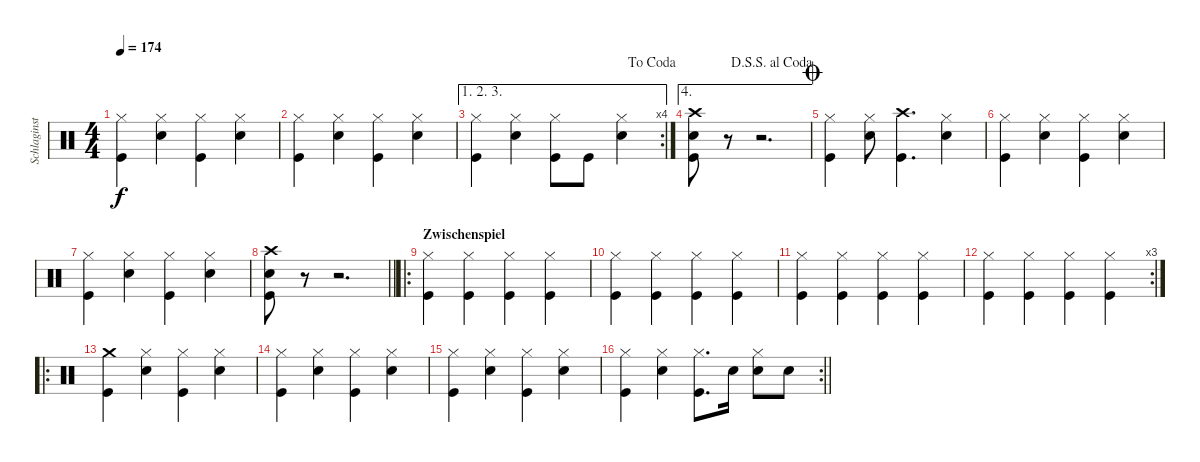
\track ("Schlaginstrumente - Auswahl" "Schlaginst") {instrument percussion}
\staff {score}
\articulation defaults
\ts (4 4)
\tempo 174
\clef neutral
\ks c
("Kick (hit)" "Hi-Hat (closed)").4{dy f} ("Snare (hit) 2" "Hi-Hat (closed)").4 ("Kick (hit)" "Hi-Hat (closed)").4 ("Snare (hit) 2" "Hi-Hat (closed)").4 |
("Kick (hit)" "Hi-Hat (closed)").4 ("Snare (hit) 2" "Hi-Hat (closed)").4 ("Kick (hit)" "Hi-Hat (closed)").4 ("Snare (hit) 2" "Hi-Hat (closed)").4 |
\ae (1 2 3)
\rc 4
\jump dacoda
("Kick (hit)" "Hi-Hat (closed)").4 ("Snare (hit) 2" "Hi-Hat (closed)").4 ("Kick (hit)" "Hi-Hat (closed)").8 "Kick (hit)".8 ("Snare (hit) 2" "Hi-Hat (closed)").4 |
\ae 4
\jump dalsegnosegnoalcoda
("Snare (hit) 2" "Kick (hit)" "Crash high (hit)").8 r.8 r.2{d} |
\jump coda
("Kick (hit)" "Hi-Hat (closed)").4 ("Snare (hit) 2" "Hi-Hat (closed)").8 ("Kick (hit)" "Crash high (hit)").4{d} ("Snare (hit) 2" "Hi-Hat (closed)").4 |
("Kick (hit)" "Hi-Hat (closed)").4 ("Snare (hit) 2" "Hi-Hat (closed)").4 ("Kick (hit)" "Hi-Hat (closed)").4 ("Snare (hit) 2" "Hi-Hat (closed)").4 |
("Kick (hit)" "Hi-Hat (closed)").4 ("Snare (hit) 2" "Hi-Hat (closed)").4 ("Kick (hit)" "Hi-Hat (closed)").4 ("Snare (hit) 2" "Hi-Hat (closed)").4 |
\barLineRight lightlight
("Snare (hit) 2" "Kick (hit)" "Crash high (hit)").8 r.8 r.2{d} |
\ro
\section ("" "Zwischenspiel")
("Kick (hit)" "Hi-Hat (closed)").4 ("Kick (hit)" "Hi-Hat (closed)").4 ("Kick (hit)" "Hi-Hat (closed)").4 ("Kick (hit)" "Hi-Hat (closed)").4 |
("Kick (hit)" "Hi-Hat (closed)").4 ("Kick (hit)" "Hi-Hat (closed)").4 ("Kick (hit)" "Hi-Hat (closed)").4 ("Kick (hit)" "Hi-Hat (closed)").4 |
("Kick (hit)" "Hi-Hat (closed)").4 ("Kick (hit)" "Hi-Hat (closed)").4 ("Kick (hit)" "Hi-Hat (closed)").4 ("Kick (hit)" "Hi-Hat (closed)").4 |
\rc 3
("Kick (hit)" "Hi-Hat (closed)").4 ("Kick (hit)" "Hi-Hat (closed)").4 ("Kick (hit)" "Hi-Hat (closed)").4 ("Kick (hit)" "Hi-Hat (closed)").4 |
\ro
("Kick (hit)" "Crash medium (hit)").4 ("Snare (hit) 2" "Hi-Hat (closed)").4 ("Kick (hit)" "Hi-Hat (closed)").4 ("Snare (hit) 2" "Hi-Hat (closed)").4 |
("Kick (hit)" "Hi-Hat (closed)").4 ("Snare (hit) 2" "Hi-Hat (closed)").4 ("Kick (hit)" "Hi-Hat (closed)").4 ("Snare (hit) 2" "Hi-Hat (closed)").4 |
("Kick (hit)" "Hi-Hat (closed)").4 ("Snare (hit) 2" "Hi-Hat (closed)").4 ("Kick (hit)" "Hi-Hat (closed)").4 ("Snare (hit) 2" "Hi-Hat (closed)").4 |
\rc 2
\barLineRight lightlight
("Kick (hit)" "Hi-Hat (closed)").4 ("Snare (hit) 2" "Hi-Hat (closed)").4 ("Kick (hit)" "Hi-Hat (closed)").8{d} "Snare (hit) 2".16 ("Snare (hit) 2" "Hi-Hat (closed)").8 "Snare (hit) 2".8
